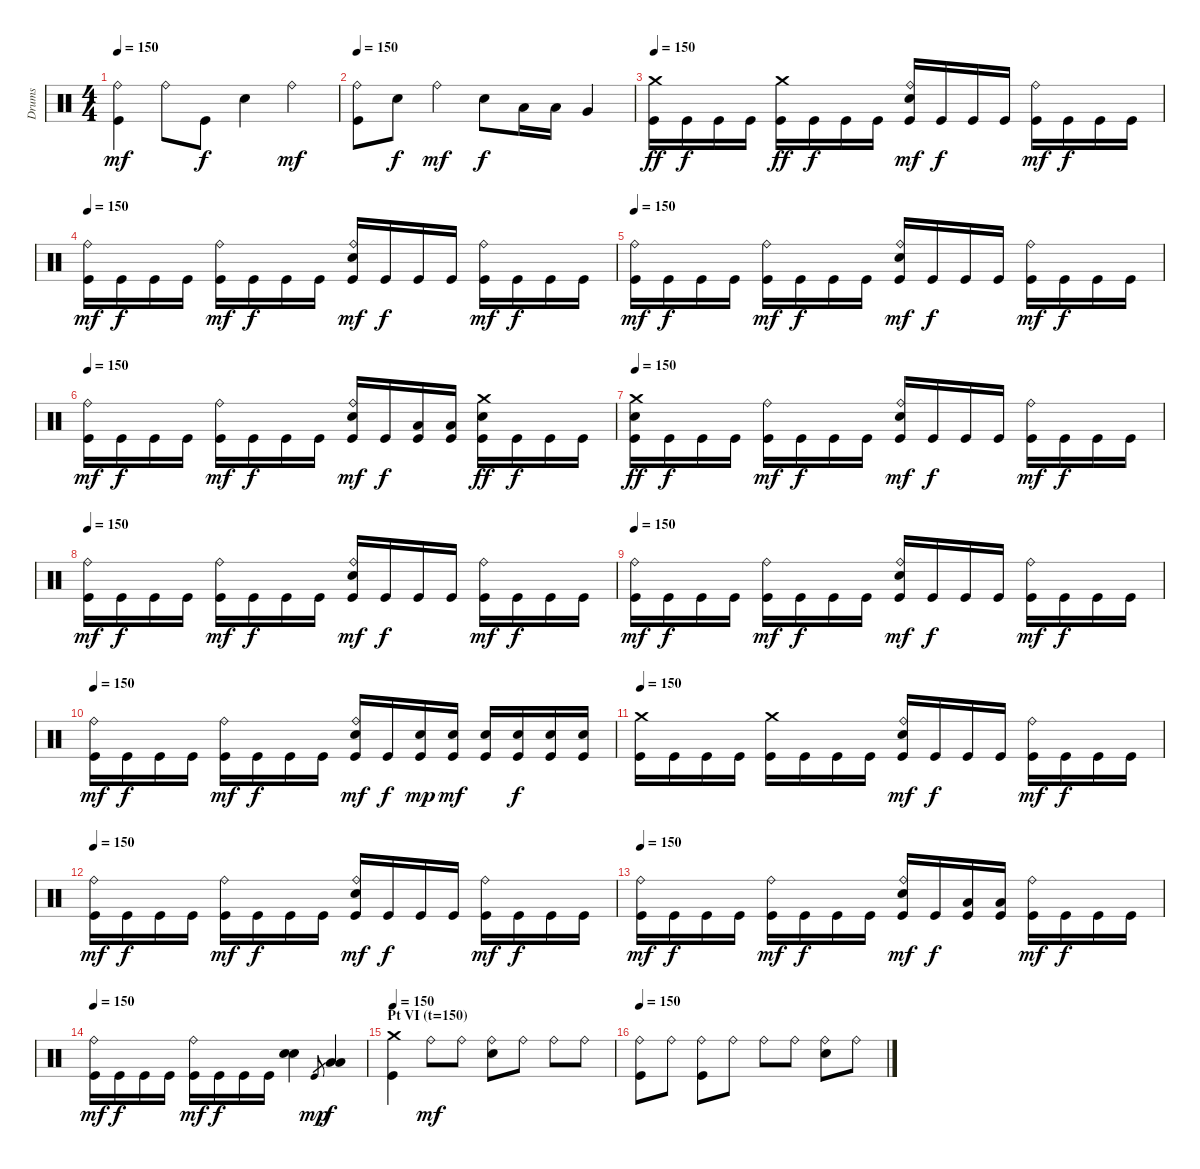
\track ("Drums" "Drums") {instrument percussion}
\staff {score}
\articulation defaults
\ts (4 4)
\tempo 150
\clef neutral
\ks c
("Kick (hit)" "Ride (bell)").4{dy mf} "Ride (bell)".8 "Kick (hit)".8{dy f} "Electric Snare (hit)".4 "Ride (bell)".4{dy mf} |
\tempo 150
("Kick (hit)" "Ride (bell)").8 "Electric Snare (hit)".8{dy f} "Ride (bell)".4{dy mf} "Electric Snare (hit)".8{dy f} "Low Tom (hit)".16 "Low Tom (hit)".16 "Very Low Tom (hit)".4 |
\tempo 150
("Kick (hit)" "Crash medium (hit)").16{dy ff} "Kick (hit)".16{dy f} "Kick (hit)".16 "Kick (hit)".16 ("Kick (hit)" "Crash medium (hit)").16{dy ff} "Kick (hit)".16{dy f} "Kick (hit)".16 "Kick (hit)".16 ("Kick (hit)" "Electric Snare (hit)" "Ride (bell)").16{dy mf} "Kick (hit)".16{dy f} "Kick (hit)".16 "Kick (hit)".16 ("Kick (hit)" "Ride (bell)").16{dy mf} "Kick (hit)".16{dy f} "Kick (hit)".16 "Kick (hit)".16 |
\tempo 150
("Kick (hit)" "Ride (bell)").16{dy mf} "Kick (hit)".16{dy f} "Kick (hit)".16 "Kick (hit)".16 ("Kick (hit)" "Ride (bell)").16{dy mf} "Kick (hit)".16{dy f} "Kick (hit)".16 "Kick (hit)".16 ("Kick (hit)" "Electric Snare (hit)" "Ride (bell)").16{dy mf} "Kick (hit)".16{dy f} "Kick (hit)".16 "Kick (hit)".16 ("Kick (hit)" "Ride (bell)").16{dy mf} "Kick (hit)".16{dy f} "Kick (hit)".16 "Kick (hit)".16 |
\tempo 150
("Kick (hit)" "Ride (bell)").16{dy mf} "Kick (hit)".16{dy f} "Kick (hit)".16 "Kick (hit)".16 ("Kick (hit)" "Ride (bell)").16{dy mf} "Kick (hit)".16{dy f} "Kick (hit)".16 "Kick (hit)".16 ("Kick (hit)" "Electric Snare (hit)" "Ride (bell)").16{dy mf} "Kick (hit)".16{dy f} "Kick (hit)".16 "Kick (hit)".16 ("Kick (hit)" "Ride (bell)").16{dy mf} "Kick (hit)".16{dy f} "Kick (hit)".16 "Kick (hit)".16 |
\tempo 150
("Kick (hit)" "Ride (bell)").16{dy mf} "Kick (hit)".16{dy f} "Kick (hit)".16 "Kick (hit)".16 ("Kick (hit)" "Ride (bell)").16{dy mf} "Kick (hit)".16{dy f} "Kick (hit)".16 "Kick (hit)".16 ("Kick (hit)" "Electric Snare (hit)" "Ride (bell)").16{dy mf} "Kick (hit)".16{dy f} ("Kick (hit)" "Low Tom (hit)").16 ("Kick (hit)" "Low Tom (hit)").16 ("Kick (hit)" "Electric Snare (hit)" "Crash medium (hit)").16{dy ff} "Kick (hit)".16{dy f} "Kick (hit)".16 "Kick (hit)".16 |
\tempo 150
("Kick (hit)" "Electric Snare (hit)" "Crash medium (hit)").16{dy ff} "Kick (hit)".16{dy f} "Kick (hit)".16 "Kick (hit)".16 ("Kick (hit)" "Ride (bell)").16{dy mf} "Kick (hit)".16{dy f} "Kick (hit)".16 "Kick (hit)".16 ("Kick (hit)" "Electric Snare (hit)" "Ride (bell)").16{dy mf} "Kick (hit)".16{dy f} "Kick (hit)".16 "Kick (hit)".16 ("Kick (hit)" "Ride (bell)").16{dy mf} "Kick (hit)".16{dy f} "Kick (hit)".16 "Kick (hit)".16 |
\tempo 150
("Kick (hit)" "Ride (bell)").16{dy mf} "Kick (hit)".16{dy f} "Kick (hit)".16 "Kick (hit)".16 ("Kick (hit)" "Ride (bell)").16{dy mf} "Kick (hit)".16{dy f} "Kick (hit)".16 "Kick (hit)".16 ("Kick (hit)" "Electric Snare (hit)" "Ride (bell)").16{dy mf} "Kick (hit)".16{dy f} "Kick (hit)".16 "Kick (hit)".16 ("Kick (hit)" "Ride (bell)").16{dy mf} "Kick (hit)".16{dy f} "Kick (hit)".16 "Kick (hit)".16 |
\tempo 150
("Kick (hit)" "Ride (bell)").16{dy mf} "Kick (hit)".16{dy f} "Kick (hit)".16 "Kick (hit)".16 ("Kick (hit)" "Ride (bell)").16{dy mf} "Kick (hit)".16{dy f} "Kick (hit)".16 "Kick (hit)".16 ("Kick (hit)" "Electric Snare (hit)" "Ride (bell)").16{dy mf} "Kick (hit)".16{dy f} "Kick (hit)".16 "Kick (hit)".16 ("Kick (hit)" "Ride (bell)").16{dy mf} "Kick (hit)".16{dy f} "Kick (hit)".16 "Kick (hit)".16 |
\tempo 150
("Kick (hit)" "Ride (bell)").16{dy mf} "Kick (hit)".16{dy f} "Kick (hit)".16 "Kick (hit)".16 ("Kick (hit)" "Ride (bell)").16{dy mf} "Kick (hit)".16{dy f} "Kick (hit)".16 "Kick (hit)".16 ("Kick (hit)" "Electric Snare (hit)" "Ride (bell)").16{dy mf} "Kick (hit)".16{dy f} ("Kick (hit)" "Electric Snare (hit)").16{dy mp} ("Kick (hit)" "Electric Snare (hit)").16{dy mf} ("Kick (hit)" "Electric Snare (hit)").16 ("Kick (hit)" "Electric Snare (hit)").16{dy f} ("Kick (hit)" "Electric Snare (hit)").16 ("Kick (hit)" "Electric Snare (hit)").16 |
\tempo 150
("Kick (hit)" "Crash medium (hit)").16 "Kick (hit)".16 "Kick (hit)".16 "Kick (hit)".16 ("Kick (hit)" "Crash medium (hit)").16 "Kick (hit)".16 "Kick (hit)".16 "Kick (hit)".16 ("Kick (hit)" "Electric Snare (hit)" "Ride (bell)").16{dy mf} "Kick (hit)".16{dy f} "Kick (hit)".16 "Kick (hit)".16 ("Kick (hit)" "Ride (bell)").16{dy mf} "Kick (hit)".16{dy f} "Kick (hit)".16 "Kick (hit)".16 |
\tempo 150
("Kick (hit)" "Ride (bell)").16{dy mf} "Kick (hit)".16{dy f} "Kick (hit)".16 "Kick (hit)".16 ("Kick (hit)" "Ride (bell)").16{dy mf} "Kick (hit)".16{dy f} "Kick (hit)".16 "Kick (hit)".16 ("Kick (hit)" "Electric Snare (hit)" "Ride (bell)").16{dy mf} "Kick (hit)".16{dy f} "Kick (hit)".16 "Kick (hit)".16 ("Kick (hit)" "Ride (bell)").16{dy mf} "Kick (hit)".16{dy f} "Kick (hit)".16 "Kick (hit)".16 |
\tempo 150
("Kick (hit)" "Ride (bell)").16{dy mf} "Kick (hit)".16{dy f} "Kick (hit)".16 "Kick (hit)".16 ("Kick (hit)" "Ride (bell)").16{dy mf} "Kick (hit)".16{dy f} "Kick (hit)".16 "Kick (hit)".16 ("Kick (hit)" "Electric Snare (hit)" "Ride (bell)").16{dy mf} "Kick (hit)".16{dy f} ("Kick (hit)" "Low Tom (hit)").16 ("Kick (hit)" "Low Tom (hit)").16 ("Kick (hit)" "Ride (bell)").16{dy mf} "Kick (hit)".16{dy f} "Kick (hit)".16 "Kick (hit)".16 |
\tempo 150
("Kick (hit)" "Ride (bell)").16{dy mf} "Kick (hit)".16{dy f} "Kick (hit)".16 "Kick (hit)".16 ("Kick (hit)" "Ride (bell)").16{dy mf} "Kick (hit)".16{dy f} "Kick (hit)".16 "Kick (hit)".16 ("Electric Snare (hit)" "Electric Snare (hit)").4 "Kick (hit)".8{gr dy mp} ("Low Tom (hit)" "Low Tom (hit)").4{dy f} |
\section ("" "Pt VI (t=150)")
\tempo 150
("Kick (hit)" "Crash medium (hit)").4 "Ride (bell)".8{dy mf} "Ride (bell)".8 ("Electric Snare (hit)" "Ride (bell)").8 "Ride (bell)".8 "Ride (bell)".8 "Ride (bell)".8 |
\tempo 150
("Kick (hit)" "Ride (bell)").8 "Ride (bell)".8 ("Kick (hit)" "Ride (bell)").8 "Ride (bell)".8 "Ride (bell)".8 "Ride (bell)".8 ("Electric Snare (hit)" "Ride (bell)").8 "Ride (bell)".8
